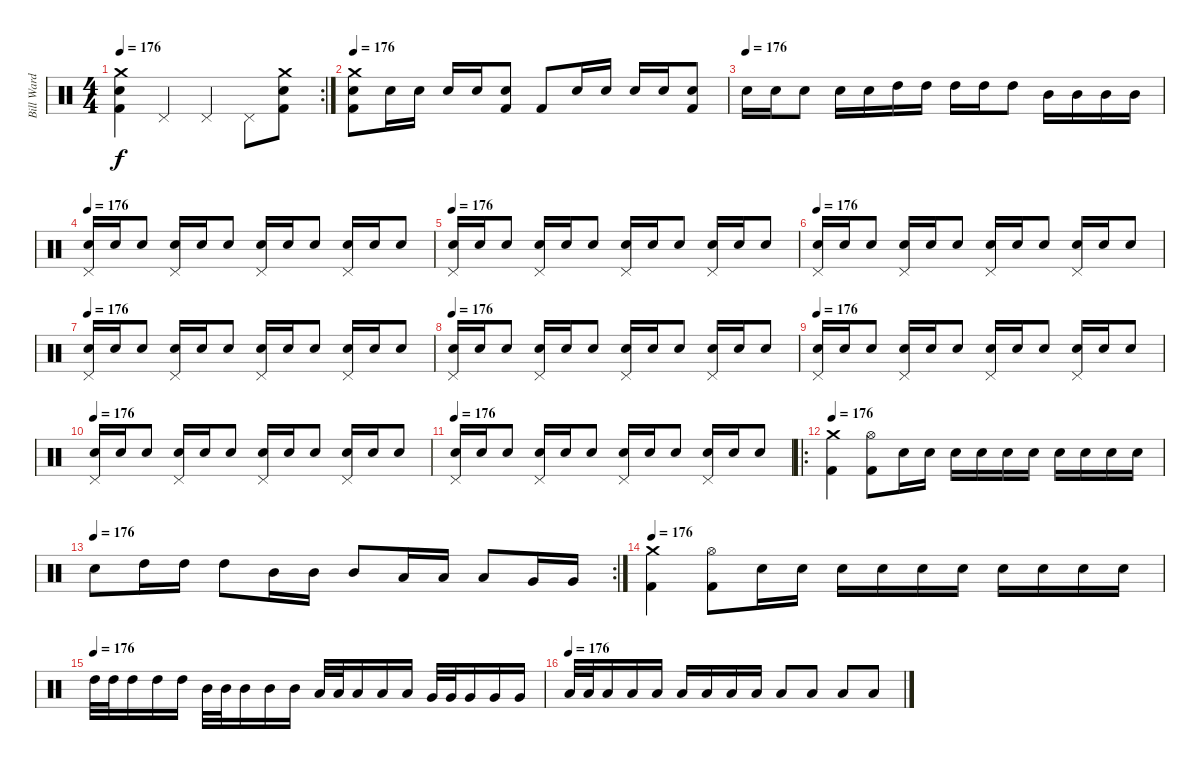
\track ("Bill Ward" "Bill Ward") {instrument percussion}
\staff {score}
\articulation defaults
\rc 2
\ts (4 4)
\tempo 176
\clef neutral
\ks c
("Crash medium (hit)" "Snare (hit) 2" "Kick (hit) 2").4{dy f} "Pedal Hi-Hat (hit)".4 "Pedal Hi-Hat (hit)".4 "Pedal Hi-Hat (hit)".8 ("Crash medium (hit)" "Snare (hit) 2" "Kick (hit) 2").8 |
\tempo 176
("Crash medium (hit)" "Snare (hit) 2" "Kick (hit) 2").8 "Snare (hit) 2".16 "Snare (hit) 2".16 "Snare (hit) 2".16 "Snare (hit) 2".16 ("Snare (hit) 2" "Kick (hit) 2").8 "Kick (hit) 2".8 "Snare (hit) 2".16 "Snare (hit) 2".16 "Snare (hit) 2".16 "Snare (hit) 2".16 ("Snare (hit) 2" "Kick (hit) 2").8 |
\tempo (176)
"Snare (hit) 2".16 "Snare (hit) 2".16 "Snare (hit) 2".8 "Snare (hit) 2".16 "Snare (hit) 2".16 "High Tom (hit)".16 "High Tom (hit)".16 "High Tom (hit)".16 "High Tom (hit)".16 "High Tom (hit)".8 "Mid Tom (hit)".16 "Mid Tom (hit)".16 "Mid Tom (hit)".16 "Mid Tom (hit)".16 |
\tempo 176
("Pedal Hi-Hat (hit)" "Snare (hit) 2").16 "Snare (hit) 2".16 "Snare (hit) 2".8 ("Pedal Hi-Hat (hit)" "Snare (hit) 2").16 "Snare (hit) 2".16 "Snare (hit) 2".8 ("Pedal Hi-Hat (hit)" "Snare (hit) 2").16 "Snare (hit) 2".16 "Snare (hit) 2".8 ("Pedal Hi-Hat (hit)" "Snare (hit) 2").16 "Snare (hit) 2".16 "Snare (hit) 2".8 |
\tempo 176
("Pedal Hi-Hat (hit)" "Snare (hit) 2").16 "Snare (hit) 2".16 "Snare (hit) 2".8 ("Pedal Hi-Hat (hit)" "Snare (hit) 2").16 "Snare (hit) 2".16 "Snare (hit) 2".8 ("Pedal Hi-Hat (hit)" "Snare (hit) 2").16 "Snare (hit) 2".16 "Snare (hit) 2".8 ("Pedal Hi-Hat (hit)" "Snare (hit) 2").16 "Snare (hit) 2".16 "Snare (hit) 2".8 |
\tempo 176
("Pedal Hi-Hat (hit)" "Snare (hit) 2").16 "Snare (hit) 2".16 "Snare (hit) 2".8 ("Pedal Hi-Hat (hit)" "Snare (hit) 2").16 "Snare (hit) 2".16 "Snare (hit) 2".8 ("Pedal Hi-Hat (hit)" "Snare (hit) 2").16 "Snare (hit) 2".16 "Snare (hit) 2".8 ("Pedal Hi-Hat (hit)" "Snare (hit) 2").16 "Snare (hit) 2".16 "Snare (hit) 2".8 |
\tempo 176
("Pedal Hi-Hat (hit)" "Snare (hit) 2").16 "Snare (hit) 2".16 "Snare (hit) 2".8 ("Pedal Hi-Hat (hit)" "Snare (hit) 2").16 "Snare (hit) 2".16 "Snare (hit) 2".8 ("Pedal Hi-Hat (hit)" "Snare (hit) 2").16 "Snare (hit) 2".16 "Snare (hit) 2".8 ("Pedal Hi-Hat (hit)" "Snare (hit) 2").16 "Snare (hit) 2".16 "Snare (hit) 2".8 |
\tempo 176
("Pedal Hi-Hat (hit)" "Snare (hit) 2").16 "Snare (hit) 2".16 "Snare (hit) 2".8 ("Pedal Hi-Hat (hit)" "Snare (hit) 2").16 "Snare (hit) 2".16 "Snare (hit) 2".8 ("Pedal Hi-Hat (hit)" "Snare (hit) 2").16 "Snare (hit) 2".16 "Snare (hit) 2".8 ("Pedal Hi-Hat (hit)" "Snare (hit) 2").16 "Snare (hit) 2".16 "Snare (hit) 2".8 |
\tempo 176
("Pedal Hi-Hat (hit)" "Snare (hit) 2").16 "Snare (hit) 2".16 "Snare (hit) 2".8 ("Pedal Hi-Hat (hit)" "Snare (hit) 2").16 "Snare (hit) 2".16 "Snare (hit) 2".8 ("Pedal Hi-Hat (hit)" "Snare (hit) 2").16 "Snare (hit) 2".16 "Snare (hit) 2".8 ("Pedal Hi-Hat (hit)" "Snare (hit) 2").16 "Snare (hit) 2".16 "Snare (hit) 2".8 |
\tempo 176
("Pedal Hi-Hat (hit)" "Snare (hit) 2").16 "Snare (hit) 2".16 "Snare (hit) 2".8 ("Pedal Hi-Hat (hit)" "Snare (hit) 2").16 "Snare (hit) 2".16 "Snare (hit) 2".8 ("Pedal Hi-Hat (hit)" "Snare (hit) 2").16 "Snare (hit) 2".16 "Snare (hit) 2".8 ("Pedal Hi-Hat (hit)" "Snare (hit) 2").16 "Snare (hit) 2".16 "Snare (hit) 2".8 |
\tempo 176
("Pedal Hi-Hat (hit)" "Snare (hit) 2").16 "Snare (hit) 2".16 "Snare (hit) 2".8 ("Pedal Hi-Hat (hit)" "Snare (hit) 2").16 "Snare (hit) 2".16 "Snare (hit) 2".8 ("Pedal Hi-Hat (hit)" "Snare (hit) 2").16 "Snare (hit) 2".16 "Snare (hit) 2".8 ("Pedal Hi-Hat (hit)" "Snare (hit) 2").16 "Snare (hit) 2".16 "Snare (hit) 2".8 |
\ro
\tempo 176
("Crash medium (hit)" "Kick (hit) 2").4 ("Hi-Hat (open)" "Kick (hit) 2").8 "Snare (hit) 2".16 "Snare (hit) 2".16 "Snare (hit) 2".16 "Snare (hit) 2".16 "Snare (hit) 2".16 "Snare (hit) 2".16 "Snare (hit) 2".16 "Snare (hit) 2".16 "Snare (hit) 2".16 "Snare (hit) 2".16 |
\rc 2
\tempo (176)
"Snare (hit) 2".8 "High Tom (hit)".16 "High Tom (hit)".16 "High Tom (hit)".8 "Mid Tom (hit)".16 "Mid Tom (hit)".16 "Mid Tom (hit)".8 "Low Tom (hit)".16 "Low Tom (hit)".16 "Low Tom (hit)".8 "Very Low Tom (hit)".16 "Very Low Tom (hit)".16 |
\tempo 176
("Crash medium (hit)" "Kick (hit) 2").4 ("Hi-Hat (open)" "Kick (hit) 2").8 "Snare (hit) 2".16 "Snare (hit) 2".16 "Snare (hit) 2".16 "Snare (hit) 2".16 "Snare (hit) 2".16 "Snare (hit) 2".16 "Snare (hit) 2".16 "Snare (hit) 2".16 "Snare (hit) 2".16 "Snare (hit) 2".16 |
\tempo (176)
"High Tom (hit)".32 "High Tom (hit)".32 "High Tom (hit)".16 "High Tom (hit)".16 "High Tom (hit)".16 "Mid Tom (hit)".32 "Mid Tom (hit)".32 "Mid Tom (hit)".16 "Mid Tom (hit)".16 "Mid Tom (hit)".16 "Low Tom (hit)".32 "Low Tom (hit)".32 "Low Tom (hit)".16 "Low Tom (hit)".16 "Low Tom (hit)".16 "Very Low Tom (hit)".32 "Very Low Tom (hit)".32 "Very Low Tom (hit)".16 "Very Low Tom (hit)".16 "Very Low Tom (hit)".16 |
\tempo (176)
"Low Floor Tom (hit)".32 "Low Floor Tom (hit)".32 "Low Floor Tom (hit)".16 "Low Floor Tom (hit)".16 "Low Floor Tom (hit)".16 "Low Floor Tom (hit)".16 "Low Floor Tom (hit)".16 "Low Floor Tom (hit)".16 "Low Floor Tom (hit)".16 "Low Floor Tom (hit)".8 "Low Floor Tom (hit)".8 "Low Floor Tom (hit)".8 "Low Floor Tom (hit)".8
